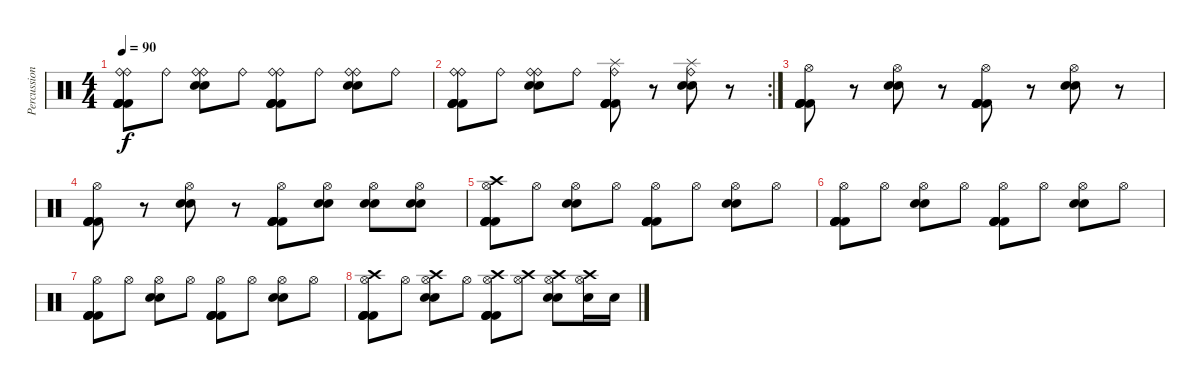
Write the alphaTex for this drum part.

\track ("Percussion" "Percussion") {instrument percussion}
\staff {score}
\articulation defaults
\ts (4 4)
\tempo 90
\clef neutral
\ks c
("Ride (bell)" "Ride (bell)" "Kick (hit) 2" "Kick (hit) 2" "Kick (hit) 2" "Kick (hit) 2").8{dy f} "Ride (bell)".8 ("Ride (bell)" "Electric Snare (hit)" "Electric Snare (hit)" "Ride (bell)").8 "Ride (bell)".8 ("Ride (bell)" "Ride (bell)" "Kick (hit) 2" "Kick (hit) 2" "Kick (hit) 2" "Kick (hit) 2").8 "Ride (bell)".8 ("Ride (bell)" "Electric Snare (hit)" "Electric Snare (hit)" "Ride (bell)").8 "Ride (bell)".8 |
\rc 2
("Ride (bell)" "Ride (bell)" "Kick (hit) 2" "Kick (hit) 2" "Kick (hit) 2" "Kick (hit) 2").8 "Ride (bell)".8 ("Ride (bell)" "Electric Snare (hit)" "Electric Snare (hit)" "Ride (bell)").8 "Ride (bell)".8 ("Splash (hit)" "Ride (bell)" "Kick (hit) 2" "Kick (hit) 2" "Kick (hit) 2" "Kick (hit) 2").8 r.8 ("Splash (hit)" "Electric Snare (hit)" "Electric Snare (hit)" "Ride (bell)").8 r.8 |
("Hi-Hat (open)" "Kick (hit) 2" "Kick (hit) 2" "Kick (hit) 2" "Kick (hit) 2").8 r.8 ("Hi-Hat (open)" "Electric Snare (hit)" "Electric Snare (hit)").8 r.8 ("Hi-Hat (open)" "Kick (hit) 2" "Kick (hit) 2" "Kick (hit) 2" "Kick (hit) 2").8 r.8 ("Hi-Hat (open)" "Electric Snare (hit)" "Electric Snare (hit)").8 r.8 |
("Hi-Hat (open)" "Kick (hit) 2" "Kick (hit) 2" "Kick (hit) 2" "Kick (hit) 2").8 r.8 ("Hi-Hat (open)" "Electric Snare (hit)" "Electric Snare (hit)").8 r.8 ("Hi-Hat (open)" "Kick (hit) 2" "Kick (hit) 2" "Kick (hit) 2" "Kick (hit) 2").8 ("Hi-Hat (open)" "Electric Snare (hit)" "Electric Snare (hit)").8 ("Hi-Hat (open)" "Electric Snare (hit)" "Electric Snare (hit)").8 ("Hi-Hat (open)" "Electric Snare (hit)" "Electric Snare (hit)").8 |
("Hi-Hat (open)" "Crash high (hit)" "Kick (hit) 2" "Kick (hit) 2" "Kick (hit) 2" "Kick (hit) 2").8 "Hi-Hat (open)".8 ("Hi-Hat (open)" "Electric Snare (hit)" "Electric Snare (hit)").8 "Hi-Hat (open)".8 ("Hi-Hat (open)" "Kick (hit) 2" "Kick (hit) 2" "Kick (hit) 2" "Kick (hit) 2").8 "Hi-Hat (open)".8 ("Hi-Hat (open)" "Electric Snare (hit)" "Electric Snare (hit)").8 "Hi-Hat (open)".8 |
("Hi-Hat (open)" "Kick (hit) 2" "Kick (hit) 2" "Kick (hit) 2" "Kick (hit) 2").8 "Hi-Hat (open)".8 ("Hi-Hat (open)" "Electric Snare (hit)" "Electric Snare (hit)").8 "Hi-Hat (open)".8 ("Hi-Hat (open)" "Kick (hit) 2" "Kick (hit) 2" "Kick (hit) 2" "Kick (hit) 2").8 "Hi-Hat (open)".8 ("Hi-Hat (open)" "Electric Snare (hit)" "Electric Snare (hit)").8 "Hi-Hat (open)".8 |
("Hi-Hat (open)" "Kick (hit) 2" "Kick (hit) 2" "Kick (hit) 2" "Kick (hit) 2").8 "Hi-Hat (open)".8 ("Hi-Hat (open)" "Electric Snare (hit)" "Electric Snare (hit)").8 "Hi-Hat (open)".8 ("Hi-Hat (open)" "Kick (hit) 2" "Kick (hit) 2" "Kick (hit) 2" "Kick (hit) 2").8 "Hi-Hat (open)".8 ("Hi-Hat (open)" "Electric Snare (hit)" "Electric Snare (hit)").8 "Hi-Hat (open)".8 |
("Hi-Hat (open)" "Crash high (hit)" "Kick (hit) 2" "Kick (hit) 2" "Kick (hit) 2" "Kick (hit) 2").8 "Hi-Hat (open)".8 ("Hi-Hat (open)" "Electric Snare (hit)" "Electric Snare (hit)" "Crash high (hit)").8 "Hi-Hat (open)".8 ("Hi-Hat (open)" "Crash high (hit)" "Kick (hit) 2" "Kick (hit) 2" "Kick (hit) 2" "Kick (hit) 2").8 ("Hi-Hat (open)" "Crash high (hit)").8 ("Hi-Hat (open)" "Electric Snare (hit)" "Electric Snare (hit)" "Crash high (hit)").8 ("Hi-Hat (open)" "Electric Snare (hit)" "Crash high (hit)").16 "Electric Snare (hit)".16
